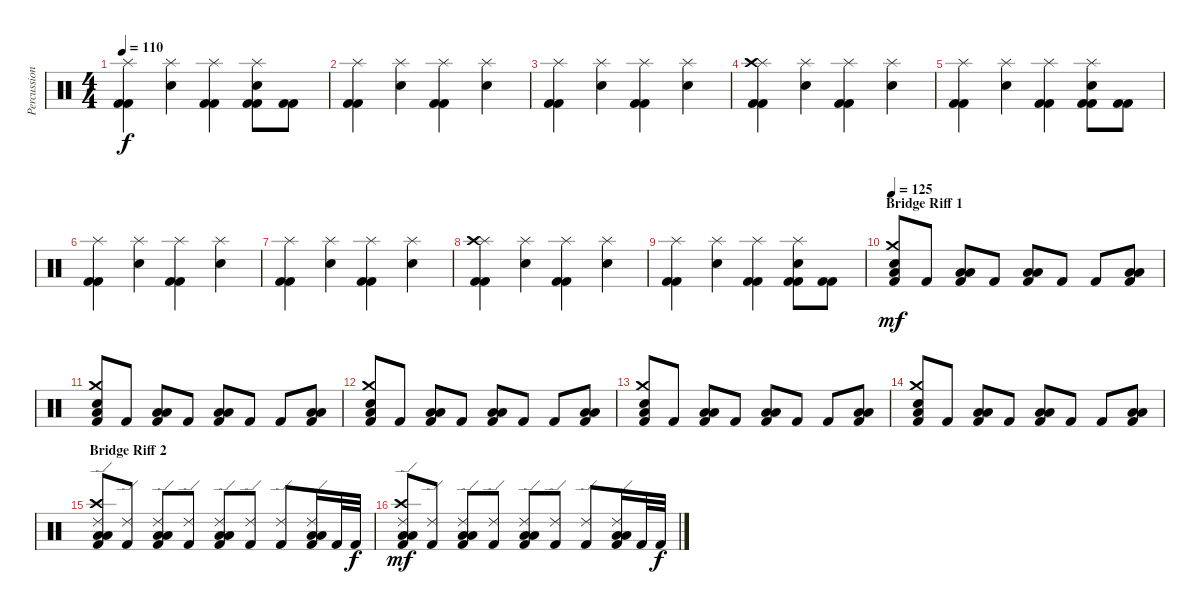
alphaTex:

\track ("Percussion" "Percussion") {instrument percussion}
\staff {score}
\articulation defaults
\ts (4 4)
\tempo 110
\clef neutral
\ks c
("Splash (hit)" "Kick (hit) 2" "Kick (hit) 2").4{dy f} ("Splash (hit)" "Electric Snare (hit)").4 ("Splash (hit)" "Kick (hit) 2" "Kick (hit) 2").4 ("Splash (hit)" "Kick (hit) 2" "Electric Snare (hit)" "Kick (hit) 2").8 ("Kick (hit) 2" "Kick (hit) 2").8 |
("Splash (hit)" "Kick (hit) 2" "Kick (hit) 2").4 ("Splash (hit)" "Electric Snare (hit)").4 ("Splash (hit)" "Kick (hit) 2" "Kick (hit) 2").4 ("Splash (hit)" "Electric Snare (hit)").4 |
("Splash (hit)" "Kick (hit) 2" "Kick (hit) 2").4 ("Splash (hit)" "Electric Snare (hit)").4 ("Splash (hit)" "Kick (hit) 2" "Kick (hit) 2").4 ("Splash (hit)" "Electric Snare (hit)").4 |
("Splash (hit)" "Crash high (hit)" "Kick (hit) 2" "Kick (hit) 2").4 ("Splash (hit)" "Electric Snare (hit)").4 ("Splash (hit)" "Kick (hit) 2" "Kick (hit) 2").4 ("Splash (hit)" "Electric Snare (hit)").4 |
("Splash (hit)" "Kick (hit) 2" "Kick (hit) 2").4 ("Splash (hit)" "Electric Snare (hit)").4 ("Splash (hit)" "Kick (hit) 2" "Kick (hit) 2").4 ("Splash (hit)" "Kick (hit) 2" "Electric Snare (hit)" "Kick (hit) 2").8 ("Kick (hit) 2" "Kick (hit) 2").8 |
("Splash (hit)" "Kick (hit) 2" "Kick (hit) 2").4 ("Splash (hit)" "Electric Snare (hit)").4 ("Splash (hit)" "Kick (hit) 2" "Kick (hit) 2").4 ("Splash (hit)" "Electric Snare (hit)").4 |
("Splash (hit)" "Kick (hit) 2" "Kick (hit) 2").4 ("Splash (hit)" "Electric Snare (hit)").4 ("Splash (hit)" "Kick (hit) 2" "Kick (hit) 2").4 ("Splash (hit)" "Electric Snare (hit)").4 |
("Splash (hit)" "Crash high (hit)" "Kick (hit) 2" "Kick (hit) 2").4 ("Splash (hit)" "Electric Snare (hit)").4 ("Splash (hit)" "Kick (hit) 2" "Kick (hit) 2").4 ("Splash (hit)" "Electric Snare (hit)").4 |
("Splash (hit)" "Kick (hit) 2" "Kick (hit) 2").4 ("Splash (hit)" "Electric Snare (hit)").4 ("Splash (hit)" "Kick (hit) 2" "Kick (hit) 2").4 ("Splash (hit)" "Kick (hit) 2" "Electric Snare (hit)" "Kick (hit) 2").8 ("Kick (hit) 2" "Kick (hit) 2").8 |
\section ("" "Bridge Riff 1")
\tempo 125
("Crash medium (hit)" "Low Tom (hit)" "Electric Snare (hit)" "Kick (hit) 2").8{dy mf} "Kick (hit) 2".8 ("Low Tom (hit)" "Low Tom (hit)" "Kick (hit) 2").8 "Kick (hit) 2".8 ("Low Tom (hit)" "Low Tom (hit)" "Kick (hit) 2").8 "Kick (hit) 2".8 "Kick (hit) 2".8 ("Low Tom (hit)" "Low Tom (hit)" "Kick (hit) 2").8 |
("Crash medium (hit)" "Low Tom (hit)" "Electric Snare (hit)" "Kick (hit) 2").8 "Kick (hit) 2".8 ("Low Tom (hit)" "Low Tom (hit)" "Kick (hit) 2").8 "Kick (hit) 2".8 ("Low Tom (hit)" "Low Tom (hit)" "Kick (hit) 2").8 "Kick (hit) 2".8 "Kick (hit) 2".8 ("Low Tom (hit)" "Low Tom (hit)" "Kick (hit) 2").8 |
("Crash medium (hit)" "Low Tom (hit)" "Electric Snare (hit)" "Kick (hit) 2").8 "Kick (hit) 2".8 ("Low Tom (hit)" "Low Tom (hit)" "Kick (hit) 2").8 "Kick (hit) 2".8 ("Low Tom (hit)" "Low Tom (hit)" "Kick (hit) 2").8 "Kick (hit) 2".8 "Kick (hit) 2".8 ("Low Tom (hit)" "Low Tom (hit)" "Kick (hit) 2").8 |
("Crash medium (hit)" "Low Tom (hit)" "Electric Snare (hit)" "Kick (hit) 2").8 "Kick (hit) 2".8 ("Low Tom (hit)" "Low Tom (hit)" "Kick (hit) 2").8 "Kick (hit) 2".8 ("Low Tom (hit)" "Low Tom (hit)" "Kick (hit) 2").8 "Kick (hit) 2".8 "Kick (hit) 2".8 ("Low Tom (hit)" "Low Tom (hit)" "Kick (hit) 2").8 |
("Crash medium (hit)" "Low Tom (hit)" "Electric Snare (hit)" "Kick (hit) 2").8 "Kick (hit) 2".8 ("Low Tom (hit)" "Low Tom (hit)" "Kick (hit) 2").8 "Kick (hit) 2".8 ("Low Tom (hit)" "Low Tom (hit)" "Kick (hit) 2").8 "Kick (hit) 2".8 "Kick (hit) 2".8 ("Low Tom (hit)" "Low Tom (hit)" "Kick (hit) 2").8 |
\section ("" "Bridge Riff 2")
("Crash high (hit)" "Ride (edge) 2" "Low Tom (hit)" "Low Tom (hit)" "Kick (hit) 2").8 ("Ride (edge) 2" "Kick (hit) 2").8 ("Ride (edge) 2" "Low Tom (hit)" "Low Tom (hit)" "Kick (hit) 2").8 ("Ride (edge) 2" "Kick (hit) 2").8 ("Ride (edge) 2" "Low Tom (hit)" "Low Tom (hit)" "Kick (hit) 2").8 ("Ride (edge) 2" "Kick (hit) 2").8 ("Ride (edge) 2" "Kick (hit) 2").8 ("Ride (edge) 2" "Low Tom (hit)" "Low Tom (hit)" "Kick (hit) 2").16 "Kick (hit) 2".32 "Kick (hit) 2".32{dy f} |
("Crash high (hit)" "Ride (edge) 2" "Low Tom (hit)" "Low Tom (hit)" "Kick (hit) 2").8{dy mf} ("Ride (edge) 2" "Kick (hit) 2").8 ("Ride (edge) 2" "Low Tom (hit)" "Low Tom (hit)" "Kick (hit) 2").8 ("Ride (edge) 2" "Kick (hit) 2").8 ("Ride (edge) 2" "Low Tom (hit)" "Low Tom (hit)" "Kick (hit) 2").8 ("Ride (edge) 2" "Kick (hit) 2").8 ("Ride (edge) 2" "Kick (hit) 2").8 ("Ride (edge) 2" "Low Tom (hit)" "Low Tom (hit)" "Kick (hit) 2").16 "Kick (hit) 2".32 "Kick (hit) 2".32{dy f}
